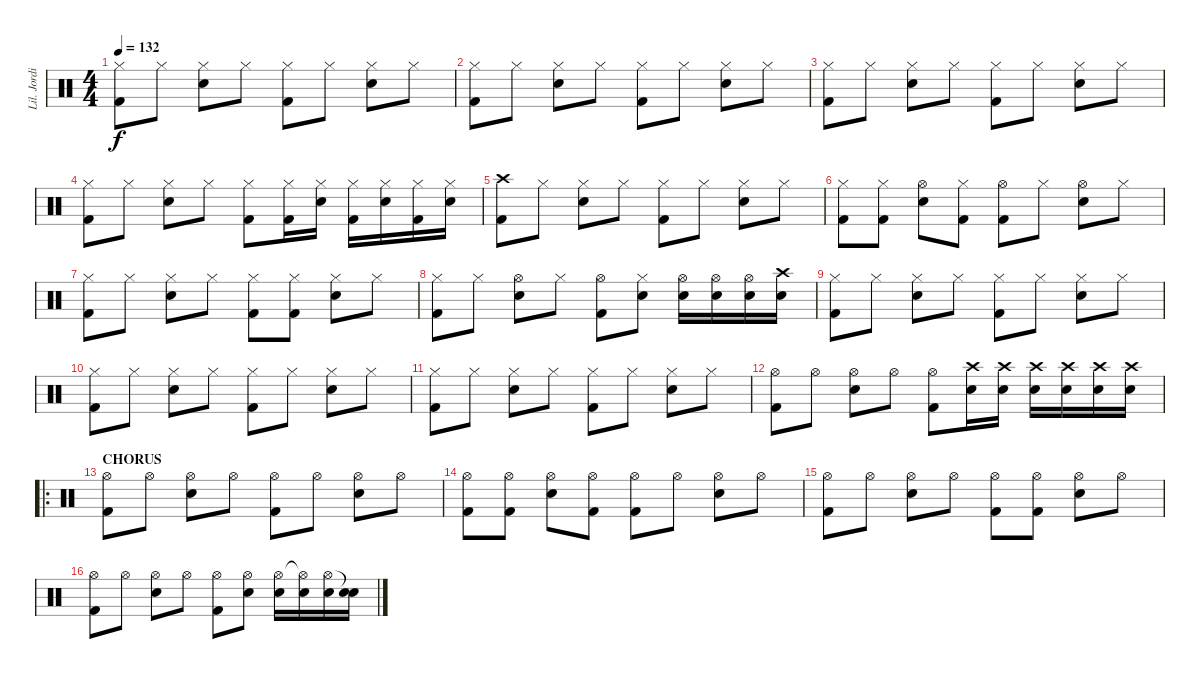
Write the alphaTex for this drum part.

\track ("Lil. Jordison" "Lil. Jordi") {instrument percussion}
\staff {score}
\articulation defaults
\ts (4 4)
\tempo 132
\clef neutral
\ks c
("Hi-Hat (closed)" "Kick (hit) 2").8{dy f} "Hi-Hat (closed)".8 ("Hi-Hat (closed)" "Electric Snare (hit)").8 "Hi-Hat (closed)".8 ("Hi-Hat (closed)" "Kick (hit) 2").8 "Hi-Hat (closed)".8 ("Hi-Hat (closed)" "Electric Snare (hit)").8 "Hi-Hat (closed)".8 |
("Hi-Hat (closed)" "Kick (hit) 2").8 "Hi-Hat (closed)".8 ("Hi-Hat (closed)" "Electric Snare (hit)").8 "Hi-Hat (closed)".8 ("Hi-Hat (closed)" "Kick (hit) 2").8 "Hi-Hat (closed)".8 ("Hi-Hat (closed)" "Electric Snare (hit)").8 "Hi-Hat (closed)".8 |
("Hi-Hat (closed)" "Kick (hit) 2").8 "Hi-Hat (closed)".8 ("Hi-Hat (closed)" "Electric Snare (hit)").8 "Hi-Hat (closed)".8 ("Hi-Hat (closed)" "Kick (hit) 2").8 "Hi-Hat (closed)".8 ("Hi-Hat (closed)" "Electric Snare (hit)").8 "Hi-Hat (closed)".8 |
("Hi-Hat (closed)" "Kick (hit) 2").8 "Hi-Hat (closed)".8 ("Hi-Hat (closed)" "Electric Snare (hit)").8 "Hi-Hat (closed)".8 ("Hi-Hat (closed)" "Kick (hit) 2").8 ("Hi-Hat (closed)" "Kick (hit) 2").16 ("Hi-Hat (closed)" "Electric Snare (hit)").16 ("Hi-Hat (closed)" "Kick (hit) 2").16 ("Hi-Hat (closed)" "Electric Snare (hit)").16 ("Hi-Hat (closed)" "Kick (hit) 2").16 ("Hi-Hat (closed)" "Electric Snare (hit)").16 |
("Crash high (hit)" "Kick (hit) 2").8 "Hi-Hat (closed)".8 ("Hi-Hat (closed)" "Electric Snare (hit)").8 "Hi-Hat (closed)".8 ("Hi-Hat (closed)" "Kick (hit) 2").8 "Hi-Hat (closed)".8 ("Hi-Hat (closed)" "Electric Snare (hit)").8 "Hi-Hat (closed)".8 |
("Hi-Hat (closed)" "Kick (hit) 2").8 ("Hi-Hat (closed)" "Kick (hit) 2").8 ("Hi-Hat (open)" "Electric Snare (hit)").8 ("Hi-Hat (closed)" "Kick (hit) 2").8 ("Hi-Hat (open)" "Kick (hit) 2").8 "Hi-Hat (closed)".8 ("Hi-Hat (open)" "Electric Snare (hit)").8 "Hi-Hat (closed)".8 |
("Hi-Hat (closed)" "Kick (hit) 2").8 "Hi-Hat (closed)".8 ("Hi-Hat (closed)" "Electric Snare (hit)").8 "Hi-Hat (closed)".8 ("Hi-Hat (closed)" "Kick (hit) 2").8 ("Hi-Hat (closed)" "Kick (hit) 2").8 ("Hi-Hat (closed)" "Electric Snare (hit)").8 "Hi-Hat (closed)".8 |
("Hi-Hat (closed)" "Kick (hit) 2").8 "Hi-Hat (closed)".8 ("Hi-Hat (open)" "Electric Snare (hit)").8 "Hi-Hat (closed)".8 ("Hi-Hat (open)" "Kick (hit) 2").8 ("Hi-Hat (closed)" "Electric Snare (hit)").8 ("Hi-Hat (open)" "Electric Snare (hit)").16 ("Hi-Hat (open)" "Electric Snare (hit)").16 ("Hi-Hat (open)" "Electric Snare (hit)").16 ("Crash high (hit)" "Electric Snare (hit)").16 |
("Hi-Hat (closed)" "Kick (hit) 2").8 "Hi-Hat (closed)".8 ("Hi-Hat (closed)" "Electric Snare (hit)").8 "Hi-Hat (closed)".8 ("Hi-Hat (closed)" "Kick (hit) 2").8 "Hi-Hat (closed)".8 ("Hi-Hat (closed)" "Electric Snare (hit)").8 "Hi-Hat (closed)".8 |
("Hi-Hat (closed)" "Kick (hit) 2").8 "Hi-Hat (closed)".8 ("Hi-Hat (closed)" "Electric Snare (hit)").8 "Hi-Hat (closed)".8 ("Hi-Hat (closed)" "Kick (hit) 2").8 "Hi-Hat (closed)".8 ("Hi-Hat (closed)" "Electric Snare (hit)").8 "Hi-Hat (closed)".8 |
("Hi-Hat (closed)" "Kick (hit) 2").8 "Hi-Hat (closed)".8 ("Hi-Hat (closed)" "Electric Snare (hit)").8 "Hi-Hat (closed)".8 ("Hi-Hat (closed)" "Kick (hit) 2").8 "Hi-Hat (closed)".8 ("Hi-Hat (closed)" "Electric Snare (hit)").8 "Hi-Hat (closed)".8 |
("Hi-Hat (open)" "Kick (hit) 2").8 "Hi-Hat (open)".8 ("Hi-Hat (open)" "Electric Snare (hit)").8 "Hi-Hat (open)".8 ("Hi-Hat (open)" "Kick (hit) 2").8 ("Crash high (hit)" "Electric Snare (hit)").16 ("Crash high (hit)" "Electric Snare (hit)").16 ("Crash high (hit)" "Electric Snare (hit)").16 ("Crash high (hit)" "Electric Snare (hit)").16 ("Crash high (hit)" "Electric Snare (hit)").16 ("Crash high (hit)" "Electric Snare (hit)").16 |
\ro
\section ("" "CHORUS")
("Hi-Hat (open)" "Kick (hit) 2").8 "Hi-Hat (open)".8 ("Hi-Hat (open)" "Electric Snare (hit)").8 "Hi-Hat (open)".8 ("Hi-Hat (open)" "Kick (hit) 2").8 "Hi-Hat (open)".8 ("Hi-Hat (open)" "Electric Snare (hit)").8 "Hi-Hat (open)".8 |
("Hi-Hat (open)" "Kick (hit) 2").8 ("Hi-Hat (open)" "Kick (hit) 2").8 ("Hi-Hat (open)" "Electric Snare (hit)").8 ("Hi-Hat (open)" "Kick (hit) 2").8 ("Hi-Hat (open)" "Kick (hit) 2").8 "Hi-Hat (open)".8 ("Hi-Hat (open)" "Electric Snare (hit)").8 "Hi-Hat (open)".8 |
("Hi-Hat (open)" "Kick (hit) 2").8 "Hi-Hat (open)".8 ("Hi-Hat (open)" "Electric Snare (hit)").8 "Hi-Hat (open)".8 ("Hi-Hat (open)" "Kick (hit) 2").8 ("Hi-Hat (open)" "Kick (hit) 2").8 ("Hi-Hat (open)" "Electric Snare (hit)").8 "Hi-Hat (open)".8 |
("Hi-Hat (open)" "Kick (hit) 2").8 "Hi-Hat (open)".8 ("Hi-Hat (open)" "Electric Snare (hit)").8 "Hi-Hat (open)".8 ("Hi-Hat (open)" "Kick (hit) 2").8 ("Hi-Hat (open)" "Electric Snare (hit)").8 ("Hi-Hat (open)" "Electric Snare (hit)").16 ("Hi-Hat (open)"{t} "Electric Snare (hit)").16 ("Hi-Hat (open)" "Electric Snare (hit)").16 ("Snare (hit)"{t} "Electric Snare (hit)").16
